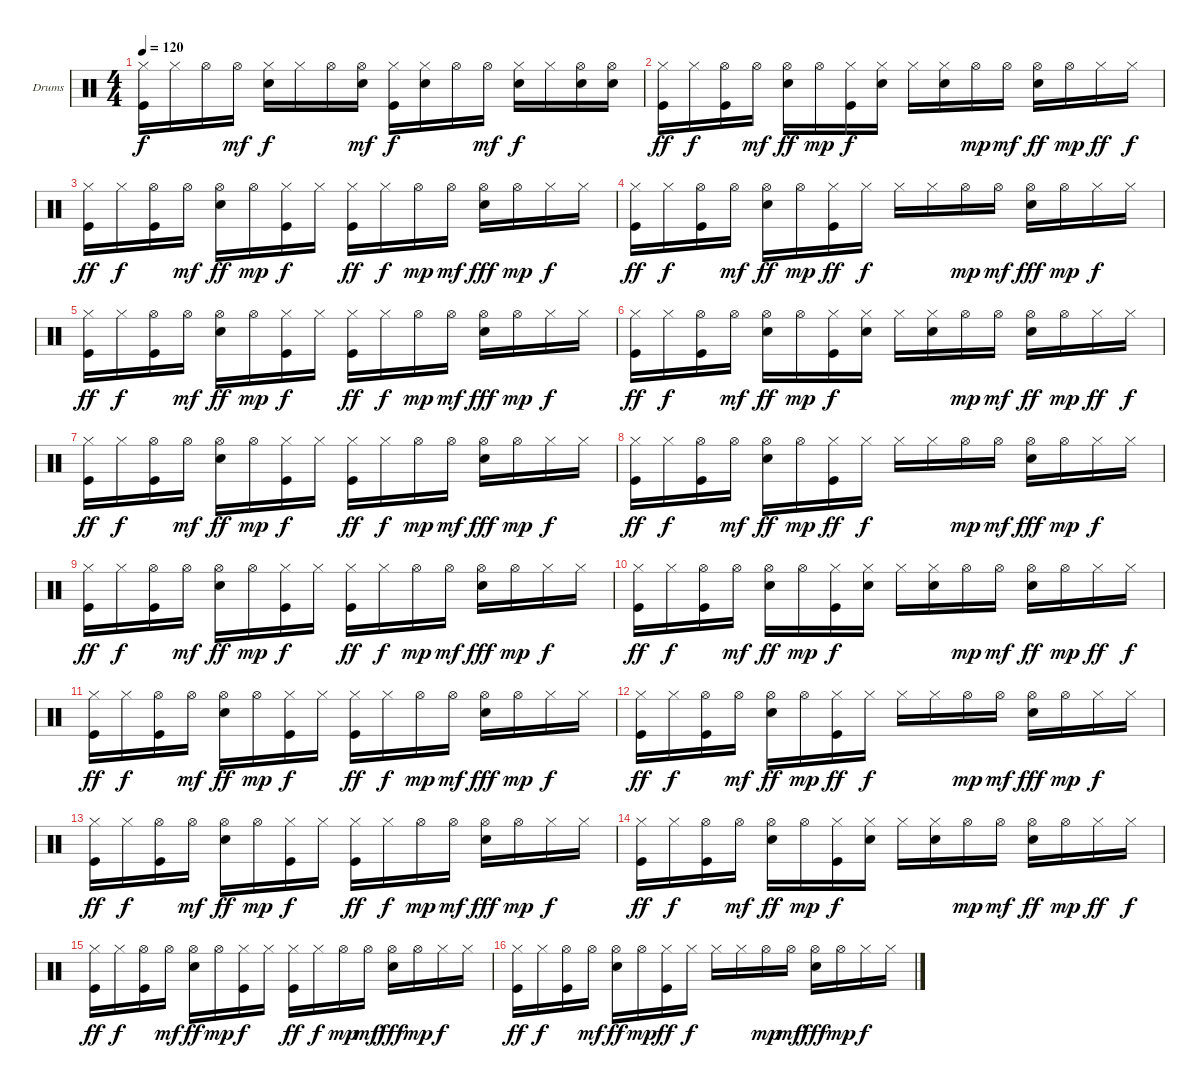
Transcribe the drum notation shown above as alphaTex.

\defaultSystemsLayout 4
\bracketExtendMode groupsimilarinstruments
\firstSystemTrackNameOrientation horizontal
\otherSystemsTrackNameOrientation horizontal
\track ("Г.Гурьянов-Ударные" "Drums") {instrument percussion}
\staff {score}
\articulation defaults
\ts (4 4)
\tempo 120
\clef neutral
\ks c
("Kick (hit)" "Hi-Hat (closed)").16{dy f} "Hi-Hat (closed)".16 "Hi-Hat (open)".16 "Hi-Hat (open)".16{dy mf} ("Snare (hit) 2" "Hi-Hat (closed)").16{dy f} "Hi-Hat (closed)".16 "Hi-Hat (open)".16 ("Hi-Hat (open)" "Snare (hit) 2").16{dy mf} ("Hi-Hat (closed)" "Kick (hit)").16{dy f} ("Snare (hit) 2" "Hi-Hat (closed)").16 "Hi-Hat (open)".16 "Hi-Hat (open)".16{dy mf} ("Snare (hit) 2" "Hi-Hat (closed)").16{dy f} "Hi-Hat (closed)".16 ("Snare (hit) 2" "Hi-Hat (open)").16 ("Snare (hit) 2" "Hi-Hat (open)").16 |
("Kick (hit)" "Hi-Hat (closed)").16{dy ff} "Hi-Hat (closed)".16{dy f} ("Kick (hit)" "Hi-Hat (open)").16 "Hi-Hat (open)".16{dy mf} ("Snare (hit) 2" "Hi-Hat (open)").16{dy ff} "Hi-Hat (open)".16{dy mp} ("Kick (hit)" "Hi-Hat (closed)").16{dy f} ("Snare (hit) 2" "Hi-Hat (closed)").16 "Hi-Hat (closed)".16 ("Snare (hit) 2" "Hi-Hat (closed)").16 "Hi-Hat (open)".16{dy mp} "Hi-Hat (open)".16{dy mf} ("Hi-Hat (open)" "Snare (hit) 2").16{dy ff} "Hi-Hat (open)".16{dy mp} "Hi-Hat (closed)".16{dy ff} "Hi-Hat (closed)".16{dy f} |
("Kick (hit)" "Hi-Hat (closed)").16{dy ff} "Hi-Hat (closed)".16{dy f} ("Kick (hit)" "Hi-Hat (open)").16 "Hi-Hat (open)".16{dy mf} ("Snare (hit) 2" "Hi-Hat (open)").16{dy ff} "Hi-Hat (open)".16{dy mp} ("Kick (hit)" "Hi-Hat (closed)").16{dy f} "Hi-Hat (closed)".16 ("Kick (hit)" "Hi-Hat (closed)").16{dy ff} "Hi-Hat (closed)".16{dy f} "Hi-Hat (open)".16{dy mp} "Hi-Hat (open)".16{dy mf} ("Snare (hit) 2" "Hi-Hat (open)").16{dy fff} "Hi-Hat (open)".16{dy mp} "Hi-Hat (closed)".16{dy f} "Hi-Hat (closed)".16 |
("Kick (hit)" "Hi-Hat (closed)").16{dy ff} "Hi-Hat (closed)".16{dy f} ("Kick (hit)" "Hi-Hat (open)").16 "Hi-Hat (open)".16{dy mf} ("Snare (hit) 2" "Hi-Hat (open)").16{dy ff} "Hi-Hat (open)".16{dy mp} ("Kick (hit)" "Hi-Hat (closed)").16{dy ff} "Hi-Hat (closed)".16{dy f} "Hi-Hat (closed)".16 "Hi-Hat (closed)".16 "Hi-Hat (open)".16{dy mp} "Hi-Hat (open)".16{dy mf} ("Snare (hit) 2" "Hi-Hat (open)").16{dy fff} "Hi-Hat (open)".16{dy mp} "Hi-Hat (closed)".16{dy f} "Hi-Hat (closed)".16 |
("Kick (hit)" "Hi-Hat (closed)").16{dy ff} "Hi-Hat (closed)".16{dy f} ("Kick (hit)" "Hi-Hat (open)").16 "Hi-Hat (open)".16{dy mf} ("Snare (hit) 2" "Hi-Hat (open)").16{dy ff} "Hi-Hat (open)".16{dy mp} ("Kick (hit)" "Hi-Hat (closed)").16{dy f} "Hi-Hat (closed)".16 ("Kick (hit)" "Hi-Hat (closed)").16{dy ff} "Hi-Hat (closed)".16{dy f} "Hi-Hat (open)".16{dy mp} "Hi-Hat (open)".16{dy mf} ("Snare (hit) 2" "Hi-Hat (open)").16{dy fff} "Hi-Hat (open)".16{dy mp} "Hi-Hat (closed)".16{dy f} "Hi-Hat (closed)".16 |
("Kick (hit)" "Hi-Hat (closed)").16{dy ff} "Hi-Hat (closed)".16{dy f} ("Kick (hit)" "Hi-Hat (open)").16 "Hi-Hat (open)".16{dy mf} ("Snare (hit) 2" "Hi-Hat (open)").16{dy ff} "Hi-Hat (open)".16{dy mp} ("Kick (hit)" "Hi-Hat (closed)").16{dy f} ("Snare (hit) 2" "Hi-Hat (closed)").16 "Hi-Hat (closed)".16 ("Snare (hit) 2" "Hi-Hat (closed)").16 "Hi-Hat (open)".16{dy mp} "Hi-Hat (open)".16{dy mf} ("Hi-Hat (open)" "Snare (hit) 2").16{dy ff} "Hi-Hat (open)".16{dy mp} "Hi-Hat (closed)".16{dy ff} "Hi-Hat (closed)".16{dy f} |
("Kick (hit)" "Hi-Hat (closed)").16{dy ff} "Hi-Hat (closed)".16{dy f} ("Kick (hit)" "Hi-Hat (open)").16 "Hi-Hat (open)".16{dy mf} ("Snare (hit) 2" "Hi-Hat (open)").16{dy ff} "Hi-Hat (open)".16{dy mp} ("Kick (hit)" "Hi-Hat (closed)").16{dy f} "Hi-Hat (closed)".16 ("Kick (hit)" "Hi-Hat (closed)").16{dy ff} "Hi-Hat (closed)".16{dy f} "Hi-Hat (open)".16{dy mp} "Hi-Hat (open)".16{dy mf} ("Snare (hit) 2" "Hi-Hat (open)").16{dy fff} "Hi-Hat (open)".16{dy mp} "Hi-Hat (closed)".16{dy f} "Hi-Hat (closed)".16 |
("Kick (hit)" "Hi-Hat (closed)").16{dy ff} "Hi-Hat (closed)".16{dy f} ("Kick (hit)" "Hi-Hat (open)").16 "Hi-Hat (open)".16{dy mf} ("Snare (hit) 2" "Hi-Hat (open)").16{dy ff} "Hi-Hat (open)".16{dy mp} ("Kick (hit)" "Hi-Hat (closed)").16{dy ff} "Hi-Hat (closed)".16{dy f} "Hi-Hat (closed)".16 "Hi-Hat (closed)".16 "Hi-Hat (open)".16{dy mp} "Hi-Hat (open)".16{dy mf} ("Snare (hit) 2" "Hi-Hat (open)").16{dy fff} "Hi-Hat (open)".16{dy mp} "Hi-Hat (closed)".16{dy f} "Hi-Hat (closed)".16 |
("Kick (hit)" "Hi-Hat (closed)").16{dy ff} "Hi-Hat (closed)".16{dy f} ("Kick (hit)" "Hi-Hat (open)").16 "Hi-Hat (open)".16{dy mf} ("Snare (hit) 2" "Hi-Hat (open)").16{dy ff} "Hi-Hat (open)".16{dy mp} ("Kick (hit)" "Hi-Hat (closed)").16{dy f} "Hi-Hat (closed)".16 ("Kick (hit)" "Hi-Hat (closed)").16{dy ff} "Hi-Hat (closed)".16{dy f} "Hi-Hat (open)".16{dy mp} "Hi-Hat (open)".16{dy mf} ("Snare (hit) 2" "Hi-Hat (open)").16{dy fff} "Hi-Hat (open)".16{dy mp} "Hi-Hat (closed)".16{dy f} "Hi-Hat (closed)".16 |
("Kick (hit)" "Hi-Hat (closed)").16{dy ff} "Hi-Hat (closed)".16{dy f} ("Kick (hit)" "Hi-Hat (open)").16 "Hi-Hat (open)".16{dy mf} ("Snare (hit) 2" "Hi-Hat (open)").16{dy ff} "Hi-Hat (open)".16{dy mp} ("Kick (hit)" "Hi-Hat (closed)").16{dy f} ("Snare (hit) 2" "Hi-Hat (closed)").16 "Hi-Hat (closed)".16 ("Snare (hit) 2" "Hi-Hat (closed)").16 "Hi-Hat (open)".16{dy mp} "Hi-Hat (open)".16{dy mf} ("Hi-Hat (open)" "Snare (hit) 2").16{dy ff} "Hi-Hat (open)".16{dy mp} "Hi-Hat (closed)".16{dy ff} "Hi-Hat (closed)".16{dy f} |
("Kick (hit)" "Hi-Hat (closed)").16{dy ff} "Hi-Hat (closed)".16{dy f} ("Kick (hit)" "Hi-Hat (open)").16 "Hi-Hat (open)".16{dy mf} ("Snare (hit) 2" "Hi-Hat (open)").16{dy ff} "Hi-Hat (open)".16{dy mp} ("Kick (hit)" "Hi-Hat (closed)").16{dy f} "Hi-Hat (closed)".16 ("Kick (hit)" "Hi-Hat (closed)").16{dy ff} "Hi-Hat (closed)".16{dy f} "Hi-Hat (open)".16{dy mp} "Hi-Hat (open)".16{dy mf} ("Snare (hit) 2" "Hi-Hat (open)").16{dy fff} "Hi-Hat (open)".16{dy mp} "Hi-Hat (closed)".16{dy f} "Hi-Hat (closed)".16 |
("Kick (hit)" "Hi-Hat (closed)").16{dy ff} "Hi-Hat (closed)".16{dy f} ("Kick (hit)" "Hi-Hat (open)").16 "Hi-Hat (open)".16{dy mf} ("Snare (hit) 2" "Hi-Hat (open)").16{dy ff} "Hi-Hat (open)".16{dy mp} ("Kick (hit)" "Hi-Hat (closed)").16{dy ff} "Hi-Hat (closed)".16{dy f} "Hi-Hat (closed)".16 "Hi-Hat (closed)".16 "Hi-Hat (open)".16{dy mp} "Hi-Hat (open)".16{dy mf} ("Snare (hit) 2" "Hi-Hat (open)").16{dy fff} "Hi-Hat (open)".16{dy mp} "Hi-Hat (closed)".16{dy f} "Hi-Hat (closed)".16 |
("Kick (hit)" "Hi-Hat (closed)").16{dy ff} "Hi-Hat (closed)".16{dy f} ("Kick (hit)" "Hi-Hat (open)").16 "Hi-Hat (open)".16{dy mf} ("Snare (hit) 2" "Hi-Hat (open)").16{dy ff} "Hi-Hat (open)".16{dy mp} ("Kick (hit)" "Hi-Hat (closed)").16{dy f} "Hi-Hat (closed)".16 ("Kick (hit)" "Hi-Hat (closed)").16{dy ff} "Hi-Hat (closed)".16{dy f} "Hi-Hat (open)".16{dy mp} "Hi-Hat (open)".16{dy mf} ("Snare (hit) 2" "Hi-Hat (open)").16{dy fff} "Hi-Hat (open)".16{dy mp} "Hi-Hat (closed)".16{dy f} "Hi-Hat (closed)".16 |
("Kick (hit)" "Hi-Hat (closed)").16{dy ff} "Hi-Hat (closed)".16{dy f} ("Kick (hit)" "Hi-Hat (open)").16 "Hi-Hat (open)".16{dy mf} ("Snare (hit) 2" "Hi-Hat (open)").16{dy ff} "Hi-Hat (open)".16{dy mp} ("Kick (hit)" "Hi-Hat (closed)").16{dy f} ("Snare (hit) 2" "Hi-Hat (closed)").16 "Hi-Hat (closed)".16 ("Snare (hit) 2" "Hi-Hat (closed)").16 "Hi-Hat (open)".16{dy mp} "Hi-Hat (open)".16{dy mf} ("Hi-Hat (open)" "Snare (hit) 2").16{dy ff} "Hi-Hat (open)".16{dy mp} "Hi-Hat (closed)".16{dy ff} "Hi-Hat (closed)".16{dy f} |
("Kick (hit)" "Hi-Hat (closed)").16{dy ff} "Hi-Hat (closed)".16{dy f} ("Kick (hit)" "Hi-Hat (open)").16 "Hi-Hat (open)".16{dy mf} ("Snare (hit) 2" "Hi-Hat (open)").16{dy ff} "Hi-Hat (open)".16{dy mp} ("Kick (hit)" "Hi-Hat (closed)").16{dy f} "Hi-Hat (closed)".16 ("Kick (hit)" "Hi-Hat (closed)").16{dy ff} "Hi-Hat (closed)".16{dy f} "Hi-Hat (open)".16{dy mp} "Hi-Hat (open)".16{dy mf} ("Snare (hit) 2" "Hi-Hat (open)").16{dy fff} "Hi-Hat (open)".16{dy mp} "Hi-Hat (closed)".16{dy f} "Hi-Hat (closed)".16 |
("Kick (hit)" "Hi-Hat (closed)").16{dy ff} "Hi-Hat (closed)".16{dy f} ("Kick (hit)" "Hi-Hat (open)").16 "Hi-Hat (open)".16{dy mf} ("Snare (hit) 2" "Hi-Hat (open)").16{dy ff} "Hi-Hat (open)".16{dy mp} ("Kick (hit)" "Hi-Hat (closed)").16{dy ff} "Hi-Hat (closed)".16{dy f} "Hi-Hat (closed)".16 "Hi-Hat (closed)".16 "Hi-Hat (open)".16{dy mp} "Hi-Hat (open)".16{dy mf} ("Snare (hit) 2" "Hi-Hat (open)").16{dy fff} "Hi-Hat (open)".16{dy mp} "Hi-Hat (closed)".16{dy f} "Hi-Hat (closed)".16
